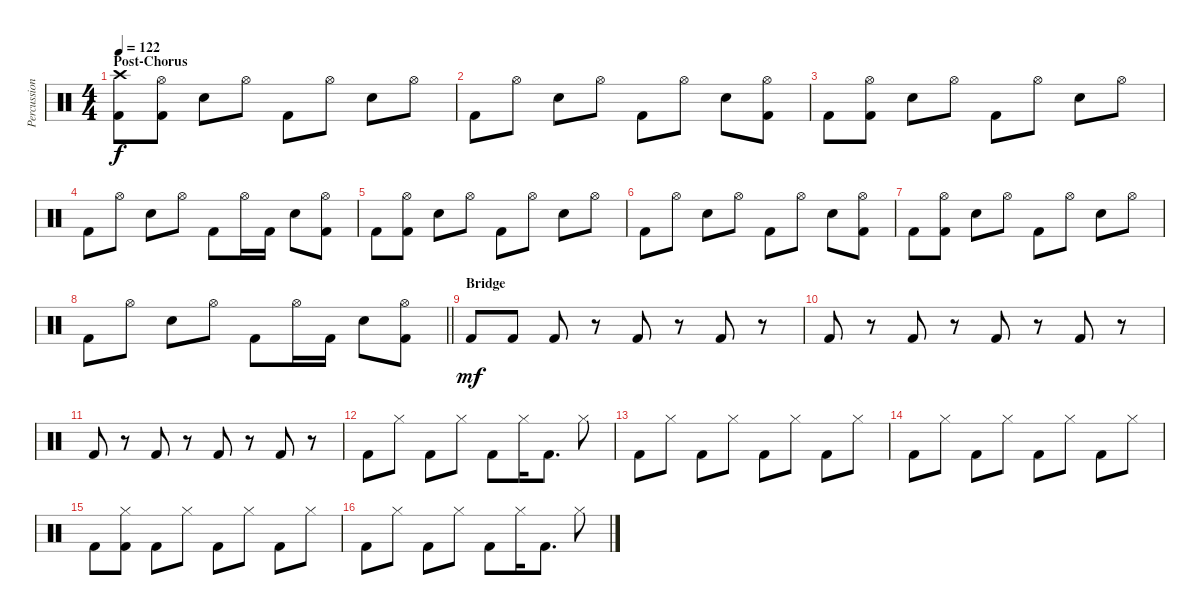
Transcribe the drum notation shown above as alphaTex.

\track ("Percussion" "Percussion") {instrument percussion}
\staff {score}
\articulation defaults
\ts (4 4)
\section ("" "Post-Chorus")
\tempo 122
\clef neutral
\ks c
("Crash high (hit)" "Kick (hit) 2").8{dy f} ("Hi-Hat (open)" "Kick (hit) 2").8 "Electric Snare (hit)".8 "Hi-Hat (open)".8 "Kick (hit) 2".8 "Hi-Hat (open)".8 "Electric Snare (hit)".8 "Hi-Hat (open)".8 |
"Kick (hit) 2".8 "Hi-Hat (open)".8 "Electric Snare (hit)".8 "Hi-Hat (open)".8 "Kick (hit) 2".8 "Hi-Hat (open)".8 "Electric Snare (hit)".8 ("Hi-Hat (open)" "Kick (hit) 2").8 |
"Kick (hit) 2".8 ("Hi-Hat (open)" "Kick (hit) 2").8 "Electric Snare (hit)".8 "Hi-Hat (open)".8 "Kick (hit) 2".8 "Hi-Hat (open)".8 "Electric Snare (hit)".8 "Hi-Hat (open)".8 |
"Kick (hit) 2".8 "Hi-Hat (open)".8 "Electric Snare (hit)".8 "Hi-Hat (open)".8 "Kick (hit) 2".8 "Hi-Hat (open)".16 "Kick (hit) 2".16 "Electric Snare (hit)".8 ("Hi-Hat (open)" "Kick (hit) 2").8 |
"Kick (hit) 2".8 ("Hi-Hat (open)" "Kick (hit) 2").8 "Electric Snare (hit)".8 "Hi-Hat (open)".8 "Kick (hit) 2".8 "Hi-Hat (open)".8 "Electric Snare (hit)".8 "Hi-Hat (open)".8 |
"Kick (hit) 2".8 "Hi-Hat (open)".8 "Electric Snare (hit)".8 "Hi-Hat (open)".8 "Kick (hit) 2".8 "Hi-Hat (open)".8 "Electric Snare (hit)".8 ("Hi-Hat (open)" "Kick (hit) 2").8 |
"Kick (hit) 2".8 ("Hi-Hat (open)" "Kick (hit) 2").8 "Electric Snare (hit)".8 "Hi-Hat (open)".8 "Kick (hit) 2".8 "Hi-Hat (open)".8 "Electric Snare (hit)".8 "Hi-Hat (open)".8 |
\barLineRight lightlight "Kick (hit) 2".8 "Hi-Hat (open)".8 "Electric Snare (hit)".8 "Hi-Hat (open)".8 "Kick (hit) 2".8 "Hi-Hat (open)".16 "Kick (hit) 2".16 "Electric Snare (hit)".8
("Hi-Hat (open)" "Kick (hit) 2").8 |
\section ("" "Bridge")
"Kick (hit) 2".8{dy mf} "Kick (hit) 2".8 "Kick (hit) 2".8 r.8 "Kick (hit) 2".8 r.8 "Kick (hit) 2".8 r.8 |
"Kick (hit) 2".8 r.8 "Kick (hit) 2".8 r.8 "Kick (hit) 2".8 r.8 "Kick (hit) 2".8 r.8 |
"Kick (hit) 2".8 r.8 "Kick (hit) 2".8 r.8 "Kick (hit) 2".8 r.8 "Kick (hit) 2".8 r.8 |
"Kick (hit) 2".8 "Hi-Hat (closed)".8 "Kick (hit) 2".8 "Hi-Hat (closed)".8 "Kick (hit) 2".8 "Hi-Hat (closed)".16 "Kick (hit) 2".8{d} "Hi-Hat (closed)".8 |
"Kick (hit) 2".8 "Hi-Hat (closed)".8 "Kick (hit) 2".8 "Hi-Hat (closed)".8 "Kick (hit) 2".8 "Hi-Hat (closed)".8 "Kick (hit) 2".8 "Hi-Hat (closed)".8 |
"Kick (hit) 2".8 "Hi-Hat (closed)".8 "Kick (hit) 2".8 "Hi-Hat (closed)".8 "Kick (hit) 2".8 "Hi-Hat (closed)".8 "Kick (hit) 2".8 "Hi-Hat (closed)".8 |
"Kick (hit) 2".8 ("Hi-Hat (closed)" "Kick (hit) 2").8 "Kick (hit) 2".8 "Hi-Hat (closed)".8 "Kick (hit) 2".8 "Hi-Hat (closed)".8 "Kick (hit) 2".8 "Hi-Hat (closed)".8 |
"Kick (hit) 2".8 "Hi-Hat (closed)".8 "Kick (hit) 2".8 "Hi-Hat (closed)".8 "Kick (hit) 2".8 "Hi-Hat (closed)".16 "Kick (hit) 2".8{d} "Hi-Hat (closed)".8
